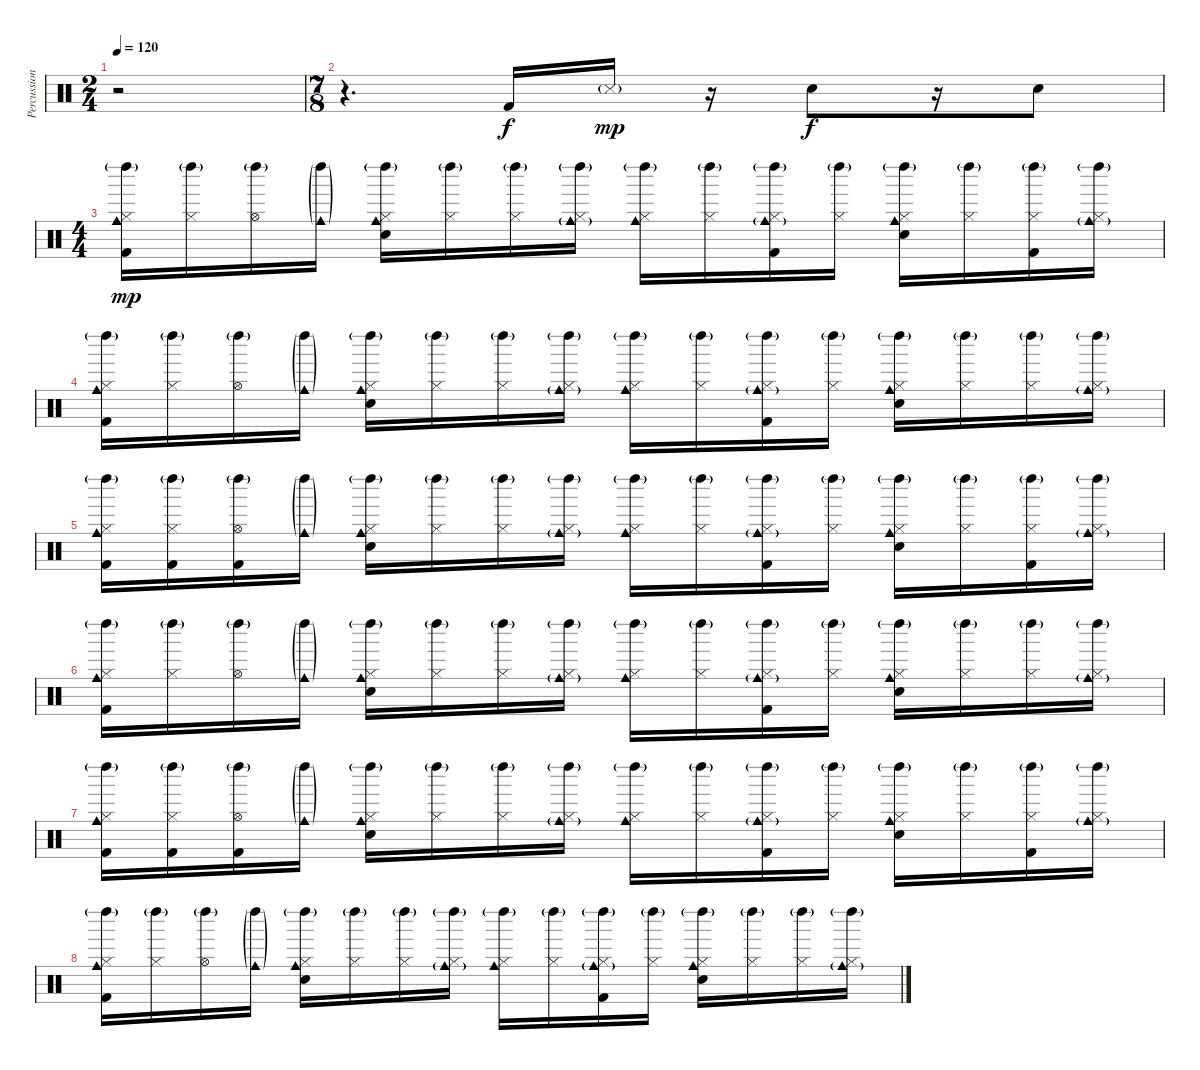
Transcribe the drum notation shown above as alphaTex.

\track ("Percussion" "Percussion") {instrument percussion}
\staff {score}
\articulation defaults
\ts (2 4)
\tempo 120
\clef neutral
\ks c
r.2{dy f} |
\ts (7 8)
r.4{d} "Kick (hit) 2".16 "Snare (side stick) 3"{g}.16{dy mp} r.16 "Electric Snare (hit)".8{dy f} r.16 "Electric Snare (hit)".8 |
\ts (4 4)
("Kick (hit) 2" "Hi-Hat (closed)" "Cowbell medium (hit)" "Left Maraca (hit)"{g}).16{dy mp} ("Hi-Hat (closed)" "Left Maraca (hit)"{g}).16 ("Hi-Hat (open)" "Left Maraca (hit)"{g}).16 ("Cowbell medium (hit)"{g} "Left Maraca (hit)"{g}).16 ("Electric Snare (hit)" "Hi-Hat (closed)" "Cowbell medium (hit)" "Left Maraca (hit)"{g}).16 ("Hi-Hat (closed)" "Left Maraca (hit)"{g}).16 ("Hi-Hat (closed)" "Left Maraca (hit)"{g}).16 ("Hi-Hat (closed)" "Cowbell medium (hit)"{g} "Left Maraca (hit)"{g}).16 ("Hi-Hat (closed)" "Cowbell medium (hit)" "Left Maraca (hit)"{g}).16 ("Hi-Hat (closed)" "Left Maraca (hit)"{g}).16 ("Kick (hit) 2" "Hi-Hat (closed)" "Cowbell medium (hit)"{g} "Left Maraca (hit)"{g}).16 ("Hi-Hat (closed)" "Left Maraca (hit)"{g}).16 ("Electric Snare (hit)" "Hi-Hat (closed)" "Cowbell medium (hit)" "Left Maraca (hit)"{g}).16 ("Hi-Hat (closed)" "Left Maraca (hit)"{g}).16 ("Kick (hit) 2" "Hi-Hat (closed)" "Left Maraca (hit)"{g}).16 ("Hi-Hat (closed)" "Cowbell medium (hit)"{g} "Left Maraca (hit)"{g}).16 |
("Kick (hit) 2" "Hi-Hat (closed)" "Cowbell medium (hit)" "Left Maraca (hit)"{g}).16 ("Hi-Hat (closed)" "Left Maraca (hit)"{g}).16 ("Hi-Hat (open)" "Left Maraca (hit)"{g}).16 ("Cowbell medium (hit)"{g} "Left Maraca (hit)"{g}).16 ("Electric Snare (hit)" "Hi-Hat (closed)" "Cowbell medium (hit)" "Left Maraca (hit)"{g}).16 ("Hi-Hat (closed)" "Left Maraca (hit)"{g}).16 ("Hi-Hat (closed)" "Left Maraca (hit)"{g}).16 ("Hi-Hat (closed)" "Cowbell medium (hit)"{g} "Left Maraca (hit)"{g}).16 ("Hi-Hat (closed)" "Cowbell medium (hit)" "Left Maraca (hit)"{g}).16 ("Hi-Hat (closed)" "Left Maraca (hit)"{g}).16 ("Kick (hit) 2" "Hi-Hat (closed)" "Cowbell medium (hit)"{g} "Left Maraca (hit)"{g}).16 ("Hi-Hat (closed)" "Left Maraca (hit)"{g}).16 ("Electric Snare (hit)" "Hi-Hat (closed)" "Cowbell medium (hit)" "Left Maraca (hit)"{g}).16 ("Hi-Hat (closed)" "Left Maraca (hit)"{g}).16 ("Hi-Hat (closed)" "Left Maraca (hit)"{g}).16 ("Hi-Hat (closed)" "Cowbell medium (hit)"{g} "Left Maraca (hit)"{g}).16 |
("Kick (hit) 2" "Hi-Hat (closed)" "Cowbell medium (hit)" "Left Maraca (hit)"{g}).16 ("Kick (hit) 2" "Hi-Hat (closed)" "Left Maraca (hit)"{g}).16 ("Kick (hit) 2" "Hi-Hat (open)" "Left Maraca (hit)"{g}).16 ("Cowbell medium (hit)"{g} "Left Maraca (hit)"{g}).16 ("Electric Snare (hit)" "Hi-Hat (closed)" "Cowbell medium (hit)" "Left Maraca (hit)"{g}).16 ("Hi-Hat (closed)" "Left Maraca (hit)"{g}).16 ("Hi-Hat (closed)" "Left Maraca (hit)"{g}).16 ("Hi-Hat (closed)" "Cowbell medium (hit)"{g} "Left Maraca (hit)"{g}).16 ("Hi-Hat (closed)" "Cowbell medium (hit)" "Left Maraca (hit)"{g}).16 ("Hi-Hat (closed)" "Left Maraca (hit)"{g}).16 ("Kick (hit) 2" "Hi-Hat (closed)" "Cowbell medium (hit)"{g} "Left Maraca (hit)"{g}).16 ("Hi-Hat (closed)" "Left Maraca (hit)"{g}).16 ("Electric Snare (hit)" "Hi-Hat (closed)" "Cowbell medium (hit)" "Left Maraca (hit)"{g}).16 ("Hi-Hat (closed)" "Left Maraca (hit)"{g}).16 ("Kick (hit) 2" "Hi-Hat (closed)" "Left Maraca (hit)"{g}).16 ("Hi-Hat (closed)" "Cowbell medium (hit)"{g} "Left Maraca (hit)"{g}).16 |
("Kick (hit) 2" "Hi-Hat (closed)" "Cowbell medium (hit)" "Left Maraca (hit)"{g}).16 ("Hi-Hat (closed)" "Left Maraca (hit)"{g}).16 ("Hi-Hat (open)" "Left Maraca (hit)"{g}).16 ("Cowbell medium (hit)"{g} "Left Maraca (hit)"{g}).16 ("Electric Snare (hit)" "Hi-Hat (closed)" "Cowbell medium (hit)" "Left Maraca (hit)"{g}).16 ("Hi-Hat (closed)" "Left Maraca (hit)"{g}).16 ("Hi-Hat (closed)" "Left Maraca (hit)"{g}).16 ("Hi-Hat (closed)" "Cowbell medium (hit)"{g} "Left Maraca (hit)"{g}).16 ("Hi-Hat (closed)" "Cowbell medium (hit)" "Left Maraca (hit)"{g}).16 ("Hi-Hat (closed)" "Left Maraca (hit)"{g}).16 ("Kick (hit) 2" "Hi-Hat (closed)" "Cowbell medium (hit)"{g} "Left Maraca (hit)"{g}).16 ("Hi-Hat (closed)" "Left Maraca (hit)"{g}).16 ("Electric Snare (hit)" "Hi-Hat (closed)" "Cowbell medium (hit)" "Left Maraca (hit)"{g}).16 ("Hi-Hat (closed)" "Left Maraca (hit)"{g}).16 ("Hi-Hat (closed)" "Left Maraca (hit)"{g}).16 ("Hi-Hat (closed)" "Cowbell medium (hit)"{g} "Left Maraca (hit)"{g}).16 |
("Kick (hit) 2" "Hi-Hat (closed)" "Cowbell medium (hit)" "Left Maraca (hit)"{g}).16 ("Kick (hit) 2" "Hi-Hat (closed)" "Left Maraca (hit)"{g}).16 ("Kick (hit) 2" "Hi-Hat (open)" "Left Maraca (hit)"{g}).16 ("Cowbell medium (hit)"{g} "Left Maraca (hit)"{g}).16 ("Electric Snare (hit)" "Hi-Hat (closed)" "Cowbell medium (hit)" "Left Maraca (hit)"{g}).16 ("Hi-Hat (closed)" "Left Maraca (hit)"{g}).16 ("Hi-Hat (closed)" "Left Maraca (hit)"{g}).16 ("Hi-Hat (closed)" "Cowbell medium (hit)"{g} "Left Maraca (hit)"{g}).16 ("Hi-Hat (closed)" "Cowbell medium (hit)" "Left Maraca (hit)"{g}).16 ("Hi-Hat (closed)" "Left Maraca (hit)"{g}).16 ("Kick (hit) 2" "Hi-Hat (closed)" "Cowbell medium (hit)"{g} "Left Maraca (hit)"{g}).16 ("Hi-Hat (closed)" "Left Maraca (hit)"{g}).16 ("Electric Snare (hit)" "Hi-Hat (closed)" "Cowbell medium (hit)" "Left Maraca (hit)"{g}).16 ("Hi-Hat (closed)" "Left Maraca (hit)"{g}).16 ("Kick (hit) 2" "Hi-Hat (closed)" "Left Maraca (hit)"{g}).16 ("Hi-Hat (closed)" "Cowbell medium (hit)"{g} "Left Maraca (hit)"{g}).16 |
("Kick (hit) 2" "Hi-Hat (closed)" "Cowbell medium (hit)" "Left Maraca (hit)"{g}).16 ("Hi-Hat (closed)" "Left Maraca (hit)"{g}).16 ("Hi-Hat (open)" "Left Maraca (hit)"{g}).16 ("Cowbell medium (hit)"{g} "Left Maraca (hit)"{g}).16 ("Electric Snare (hit)" "Hi-Hat (closed)" "Cowbell medium (hit)" "Left Maraca (hit)"{g}).16 ("Hi-Hat (closed)" "Left Maraca (hit)"{g}).16 ("Hi-Hat (closed)" "Left Maraca (hit)"{g}).16 ("Hi-Hat (closed)" "Cowbell medium (hit)"{g} "Left Maraca (hit)"{g}).16 ("Hi-Hat (closed)" "Cowbell medium (hit)" "Left Maraca (hit)"{g}).16 ("Hi-Hat (closed)" "Left Maraca (hit)"{g}).16 ("Kick (hit) 2" "Hi-Hat (closed)" "Cowbell medium (hit)"{g} "Left Maraca (hit)"{g}).16 ("Hi-Hat (closed)" "Left Maraca (hit)"{g}).16 ("Electric Snare (hit)" "Hi-Hat (closed)" "Cowbell medium (hit)" "Left Maraca (hit)"{g}).16 ("Hi-Hat (closed)" "Left Maraca (hit)"{g}).16 ("Hi-Hat (closed)" "Left Maraca (hit)"{g}).16 ("Hi-Hat (closed)" "Cowbell medium (hit)"{g} "Left Maraca (hit)"{g}).16
